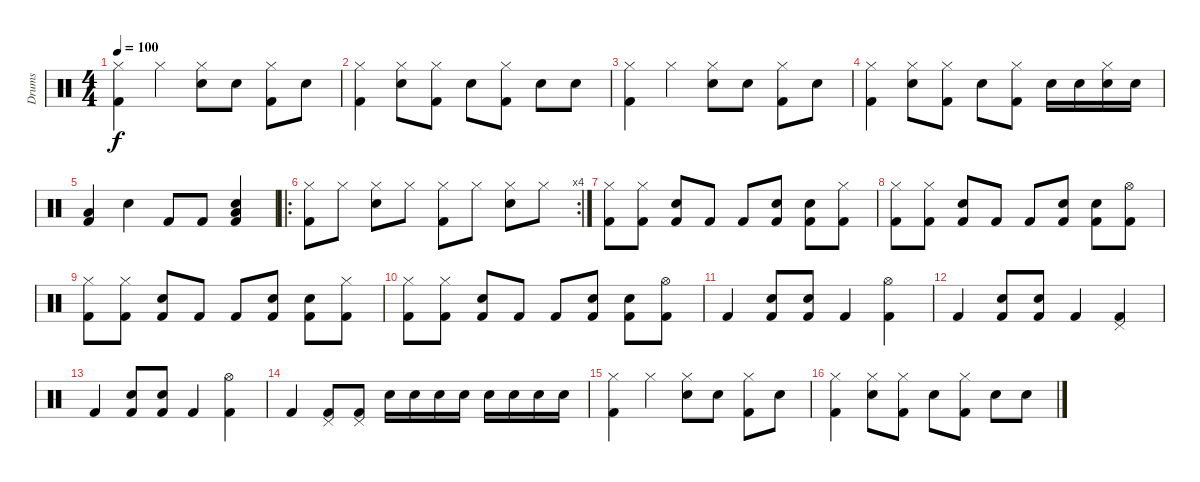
\track ("Drums" "Drums") {instrument percussion}
\staff {score}
\articulation defaults
\ts (4 4)
\tempo 100
\clef neutral
\ks c
("Kick (hit) 2" "Hi-Hat (closed)").4{dy f} "Hi-Hat (closed)".4 ("Snare (hit) 2" "Hi-Hat (closed)").8 "Snare (hit) 2".8 ("Kick (hit) 2" "Hi-Hat (closed)").8 "Snare (hit) 2".8 |
("Kick (hit) 2" "Hi-Hat (closed)").4 ("Snare (hit) 2" "Hi-Hat (closed)").8 ("Kick (hit) 2" "Hi-Hat (closed)").8 "Snare (hit) 2".8 ("Kick (hit) 2" "Hi-Hat (closed)").8 "Snare (hit) 2".8 "Snare (hit) 2".8 |
("Kick (hit) 2" "Hi-Hat (closed)").4 "Hi-Hat (closed)".4 ("Snare (hit) 2" "Hi-Hat (closed)").8 "Snare (hit) 2".8 ("Kick (hit) 2" "Hi-Hat (closed)").8 "Snare (hit) 2".8 |
("Kick (hit) 2" "Hi-Hat (closed)").4 ("Snare (hit) 2" "Hi-Hat (closed)").8 ("Kick (hit) 2" "Hi-Hat (closed)").8 "Snare (hit) 2".8 ("Kick (hit) 2" "Hi-Hat (closed)").8 "Snare (hit) 2".16 "Snare (hit) 2".16 ("Snare (hit) 2" "Hi-Hat (closed)").16 "Snare (hit) 2".16 |
("Kick (hit) 2" "Low Tom (hit)").4 "Snare (hit) 2".4 "Kick (hit) 2".8 "Kick (hit) 2".8 ("Kick (hit) 2" "Snare (hit) 2" "Low Tom (hit)").4 |
\ro
\rc 4
("Kick (hit) 2" "Hi-Hat (closed)").8 "Hi-Hat (closed)".8 ("Snare (hit) 2" "Hi-Hat (closed)").8 "Hi-Hat (closed)".8 ("Kick (hit) 2" "Hi-Hat (closed)").8 "Hi-Hat (closed)".8 ("Snare (hit) 2" "Hi-Hat (closed)").8 "Hi-Hat (closed)".8 |
("Kick (hit) 2" "Hi-Hat (closed)").8 ("Kick (hit) 2" "Hi-Hat (closed)").8 ("Kick (hit) 2" "Snare (hit) 2").8 "Kick (hit) 2".8 "Kick (hit) 2".8 ("Kick (hit) 2" "Snare (hit) 2").8 ("Kick (hit) 2" "Snare (hit) 2").8 ("Kick (hit) 2" "Hi-Hat (closed)").8 |
("Kick (hit) 2" "Hi-Hat (closed)").8 ("Kick (hit) 2" "Hi-Hat (closed)").8 ("Kick (hit) 2" "Snare (hit) 2").8 "Kick (hit) 2".8 "Kick (hit) 2".8 ("Kick (hit) 2" "Snare (hit) 2").8 ("Kick (hit) 2" "Snare (hit) 2").8 ("Kick (hit) 2" "Hi-Hat (open)").8 |
("Kick (hit) 2" "Hi-Hat (closed)").8 ("Kick (hit) 2" "Hi-Hat (closed)").8 ("Kick (hit) 2" "Snare (hit) 2").8 "Kick (hit) 2".8 "Kick (hit) 2".8 ("Kick (hit) 2" "Snare (hit) 2").8 ("Kick (hit) 2" "Snare (hit) 2").8 ("Kick (hit) 2" "Hi-Hat (closed)").8 |
("Kick (hit) 2" "Hi-Hat (closed)").8 ("Kick (hit) 2" "Hi-Hat (closed)").8 ("Kick (hit) 2" "Snare (hit) 2").8 "Kick (hit) 2".8 "Kick (hit) 2".8 ("Kick (hit) 2" "Snare (hit) 2").8 ("Kick (hit) 2" "Snare (hit) 2").8 ("Kick (hit) 2" "Hi-Hat (open)").8 |
"Kick (hit) 2".4 ("Kick (hit) 2" "Snare (hit) 2").8 ("Kick (hit) 2" "Snare (hit) 2").8 "Kick (hit) 2".4 ("Kick (hit) 2" "Hi-Hat (open)").4 |
"Kick (hit) 2".4 ("Kick (hit) 2" "Snare (hit) 2").8 ("Kick (hit) 2" "Snare (hit) 2").8 "Kick (hit) 2".4 ("Kick (hit) 2" "Pedal Hi-Hat (hit)").4 |
"Kick (hit) 2".4 ("Kick (hit) 2" "Snare (hit) 2").8 ("Kick (hit) 2" "Snare (hit) 2").8 "Kick (hit) 2".4 ("Kick (hit) 2" "Hi-Hat (open)").4 |
"Kick (hit) 2".4 ("Kick (hit) 2" "Pedal Hi-Hat (hit)").8 ("Kick (hit) 2" "Pedal Hi-Hat (hit)").8 "Snare (hit) 2".16 "Snare (hit) 2".16 "Snare (hit) 2".16 "Snare (hit) 2".16 "Snare (hit) 2".16 "Snare (hit) 2".16 "Snare (hit) 2".16 "Snare (hit) 2".16 |
("Kick (hit) 2" "Hi-Hat (closed)").4 "Hi-Hat (closed)".4 ("Snare (hit) 2" "Hi-Hat (closed)").8 "Snare (hit) 2".8 ("Kick (hit) 2" "Hi-Hat (closed)").8 "Snare (hit) 2".8 |
("Kick (hit) 2" "Hi-Hat (closed)").4 ("Snare (hit) 2" "Hi-Hat (closed)").8 ("Kick (hit) 2" "Hi-Hat (closed)").8 "Snare (hit) 2".8 ("Kick (hit) 2" "Hi-Hat (closed)").8 "Snare (hit) 2".8 "Snare (hit) 2".8
